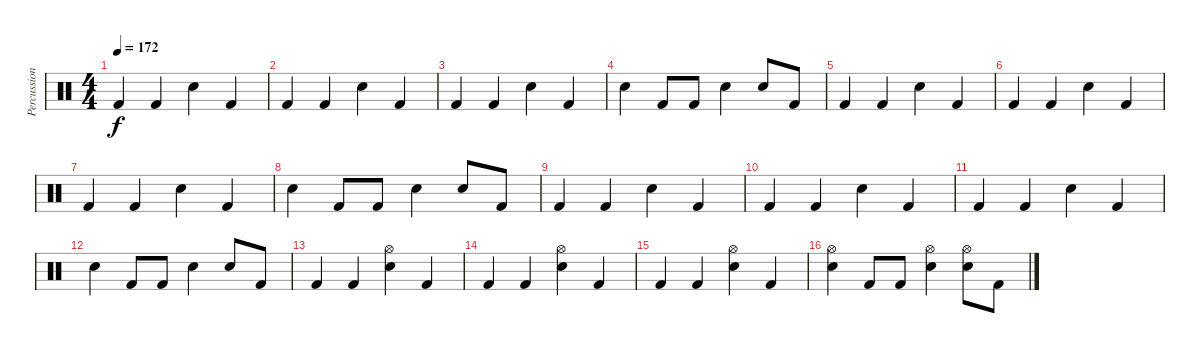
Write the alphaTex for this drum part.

\track ("Percussion" "Percussion") {instrument percussion}
\staff {score}
\articulation defaults
\ts (4 4)
\tempo 172
\clef neutral
\ks c "Kick (hit) 2".4{dy f} "Kick (hit) 2".4 "Electric Snare (hit)".4 "Kick (hit) 2".4
|
"Kick (hit) 2".4 "Kick (hit) 2".4 "Electric Snare (hit)".4 "Kick (hit) 2".4 |
"Kick (hit) 2".4 "Kick (hit) 2".4 "Electric Snare (hit)".4 "Kick (hit) 2".4 |
"Electric Snare (hit)".4 "Kick (hit) 2".8 "Kick (hit) 2".8 "Electric Snare (hit)".4 "Electric Snare (hit)".8 "Kick (hit) 2".8 |
"Kick (hit) 2".4 "Kick (hit) 2".4 "Electric Snare (hit)".4 "Kick (hit) 2".4 |
"Kick (hit) 2".4 "Kick (hit) 2".4 "Electric Snare (hit)".4 "Kick (hit) 2".4 |
"Kick (hit) 2".4 "Kick (hit) 2".4 "Electric Snare (hit)".4 "Kick (hit) 2".4 |
"Electric Snare (hit)".4 "Kick (hit) 2".8 "Kick (hit) 2".8 "Electric Snare (hit)".4 "Electric Snare (hit)".8 "Kick (hit) 2".8 |
"Kick (hit) 2".4 "Kick (hit) 2".4 "Electric Snare (hit)".4 "Kick (hit) 2".4 |
"Kick (hit) 2".4 "Kick (hit) 2".4 "Electric Snare (hit)".4 "Kick (hit) 2".4 |
"Kick (hit) 2".4 "Kick (hit) 2".4 "Electric Snare (hit)".4 "Kick (hit) 2".4 |
"Electric Snare (hit)".4 "Kick (hit) 2".8 "Kick (hit) 2".8 "Electric Snare (hit)".4 "Electric Snare (hit)".8 "Kick (hit) 2".8 |
"Kick (hit) 2".4 "Kick (hit) 2".4 ("Hi-Hat (open)" "Electric Snare (hit)").4 "Kick (hit) 2".4 |
"Kick (hit) 2".4 "Kick (hit) 2".4 ("Hi-Hat (open)" "Electric Snare (hit)").4 "Kick (hit) 2".4 |
"Kick (hit) 2".4 "Kick (hit) 2".4 ("Hi-Hat (open)" "Electric Snare (hit)").4 "Kick (hit) 2".4 |
("Hi-Hat (open)" "Electric Snare (hit)").4 "Kick (hit) 2".8 "Kick (hit) 2".8 ("Hi-Hat (open)" "Electric Snare (hit)").4 ("Hi-Hat (open)" "Electric Snare (hit)").8 "Kick (hit) 2".8
